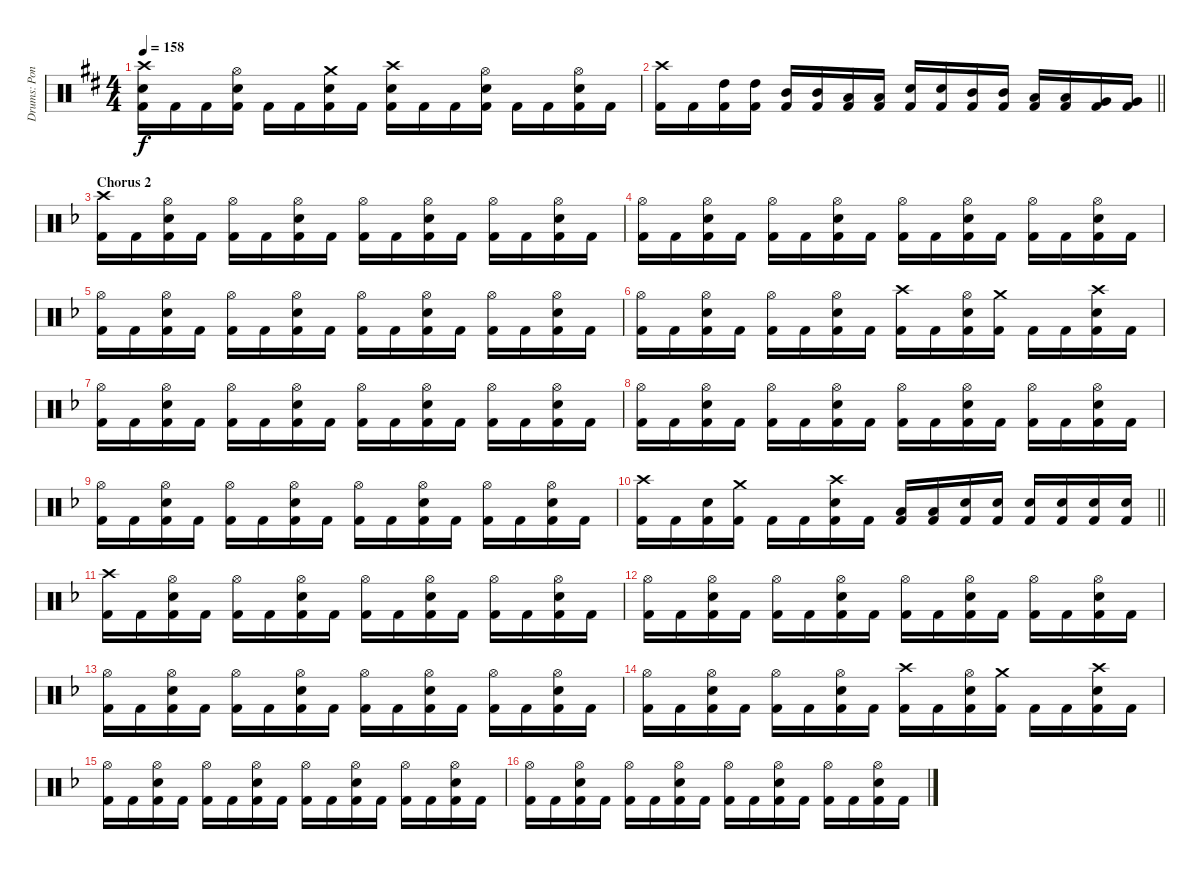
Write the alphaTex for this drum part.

\track ("Drums: Pontus Jansson" "Drums: Pon") {instrument percussion}
\staff {score}
\articulation defaults
\ts (4 4)
\tempo 158
\clef neutral
\ks bminor
("Crash high (hit)" "Electric Snare (hit)" "Kick (hit) 2").16{dy f} "Kick (hit) 2".16 "Kick (hit) 2".16 ("Hi-Hat (open)" "Electric Snare (hit)" "Kick (hit) 2").16 "Kick (hit) 2".16 "Kick (hit) 2".16 ("Crash medium (hit)" "Electric Snare (hit)" "Kick (hit) 2").16 "Kick (hit) 2".16 ("Crash high (hit)" "Electric Snare (hit)" "Kick (hit) 2").16 "Kick (hit) 2".16 "Kick (hit) 2".16 ("Hi-Hat (open)" "Electric Snare (hit)" "Kick (hit) 2").16 "Kick (hit) 2".16 "Kick (hit) 2".16 ("Hi-Hat (open)" "Electric Snare (hit)" "Kick (hit) 2").16 "Kick (hit) 2".16 |
\barLineRight lightlight
("Crash high (hit)" "Kick (hit) 2").16 "Kick (hit) 2".16 ("High Tom (hit)" "Kick (hit) 2").16 ("High Tom (hit)" "Kick (hit) 2").16 ("Mid Tom (hit)" "Kick (hit) 2").16 ("Mid Tom (hit)" "Kick (hit) 2").16 ("Low Tom (hit)" "Kick (hit) 2").16 ("Low Tom (hit)" "Kick (hit) 2").16 ("Electric Snare (hit)" "Kick (hit) 2").16 ("Electric Snare (hit)" "Kick (hit) 2").16 ("Mid Tom (hit)" "Kick (hit) 2").16 ("Mid Tom (hit)" "Kick (hit) 2").16 ("Low Tom (hit)" "Kick (hit) 2").16 ("Low Tom (hit)" "Kick (hit) 2").16 ("Very Low Tom (hit)" "Kick (hit) 2").16 ("Very Low Tom (hit)" "Kick (hit) 2").16 |
\section ("" "Chorus 2")
\ks dminor
("Crash high (hit)" "Kick (hit) 2").16 "Kick (hit) 2".16 ("Hi-Hat (open)" "Electric Snare (hit)" "Kick (hit) 2").16 "Kick (hit) 2".16 ("Hi-Hat (open)" "Kick (hit) 2").16 "Kick (hit) 2".16 ("Hi-Hat (open)" "Electric Snare (hit)" "Kick (hit) 2").16 "Kick (hit) 2".16 ("Hi-Hat (open)" "Kick (hit) 2").16 "Kick (hit) 2".16 ("Hi-Hat (open)" "Electric Snare (hit)" "Kick (hit) 2").16 "Kick (hit) 2".16 ("Hi-Hat (open)" "Kick (hit) 2").16 "Kick (hit) 2".16 ("Hi-Hat (open)" "Electric Snare (hit)" "Kick (hit) 2").16 "Kick (hit) 2".16 |
("Hi-Hat (open)" "Kick (hit) 2").16 "Kick (hit) 2".16 ("Hi-Hat (open)" "Electric Snare (hit)" "Kick (hit) 2").16 "Kick (hit) 2".16 ("Hi-Hat (open)" "Kick (hit) 2").16 "Kick (hit) 2".16 ("Hi-Hat (open)" "Electric Snare (hit)" "Kick (hit) 2").16 "Kick (hit) 2".16 ("Hi-Hat (open)" "Kick (hit) 2").16 "Kick (hit) 2".16 ("Hi-Hat (open)" "Electric Snare (hit)" "Kick (hit) 2").16 "Kick (hit) 2".16 ("Hi-Hat (open)" "Kick (hit) 2").16 "Kick (hit) 2".16 ("Hi-Hat (open)" "Electric Snare (hit)" "Kick (hit) 2").16 "Kick (hit) 2".16 |
("Hi-Hat (open)" "Kick (hit) 2").16 "Kick (hit) 2".16 ("Hi-Hat (open)" "Electric Snare (hit)" "Kick (hit) 2").16 "Kick (hit) 2".16 ("Hi-Hat (open)" "Kick (hit) 2").16 "Kick (hit) 2".16 ("Hi-Hat (open)" "Electric Snare (hit)" "Kick (hit) 2").16 "Kick (hit) 2".16 ("Hi-Hat (open)" "Kick (hit) 2").16 "Kick (hit) 2".16 ("Hi-Hat (open)" "Electric Snare (hit)" "Kick (hit) 2").16 "Kick (hit) 2".16 ("Hi-Hat (open)" "Kick (hit) 2").16 "Kick (hit) 2".16 ("Hi-Hat (open)" "Electric Snare (hit)" "Kick (hit) 2").16 "Kick (hit) 2".16 |
("Hi-Hat (open)" "Kick (hit) 2").16 "Kick (hit) 2".16 ("Hi-Hat (open)" "Electric Snare (hit)" "Kick (hit) 2").16 "Kick (hit) 2".16 ("Hi-Hat (open)" "Kick (hit) 2").16 "Kick (hit) 2".16 ("Hi-Hat (open)" "Electric Snare (hit)" "Kick (hit) 2").16 "Kick (hit) 2".16 ("Crash high (hit)" "Kick (hit) 2").16 "Kick (hit) 2".16 ("Hi-Hat (open)" "Electric Snare (hit)" "Kick (hit) 2").16 ("Crash medium (hit)" "Kick (hit) 2").16 "Kick (hit) 2".16 "Kick (hit) 2".16 ("Crash high (hit)" "Electric Snare (hit)" "Kick (hit) 2").16 "Kick (hit) 2".16 |
("Hi-Hat (open)" "Kick (hit) 2").16 "Kick (hit) 2".16 ("Hi-Hat (open)" "Electric Snare (hit)" "Kick (hit) 2").16 "Kick (hit) 2".16 ("Hi-Hat (open)" "Kick (hit) 2").16 "Kick (hit) 2".16 ("Hi-Hat (open)" "Electric Snare (hit)" "Kick (hit) 2").16 "Kick (hit) 2".16 ("Hi-Hat (open)" "Kick (hit) 2").16 "Kick (hit) 2".16 ("Hi-Hat (open)" "Electric Snare (hit)" "Kick (hit) 2").16 "Kick (hit) 2".16 ("Hi-Hat (open)" "Kick (hit) 2").16 "Kick (hit) 2".16 ("Hi-Hat (open)" "Electric Snare (hit)" "Kick (hit) 2").16 "Kick (hit) 2".16 |
("Hi-Hat (open)" "Kick (hit) 2").16 "Kick (hit) 2".16 ("Hi-Hat (open)" "Electric Snare (hit)" "Kick (hit) 2").16 "Kick (hit) 2".16 ("Hi-Hat (open)" "Kick (hit) 2").16 "Kick (hit) 2".16 ("Hi-Hat (open)" "Electric Snare (hit)" "Kick (hit) 2").16 "Kick (hit) 2".16 ("Hi-Hat (open)" "Kick (hit) 2").16 "Kick (hit) 2".16 ("Hi-Hat (open)" "Electric Snare (hit)" "Kick (hit) 2").16 "Kick (hit) 2".16 ("Hi-Hat (open)" "Kick (hit) 2").16 "Kick (hit) 2".16 ("Hi-Hat (open)" "Electric Snare (hit)" "Kick (hit) 2").16 "Kick (hit) 2".16 |
("Hi-Hat (open)" "Kick (hit) 2").16 "Kick (hit) 2".16 ("Hi-Hat (open)" "Electric Snare (hit)" "Kick (hit) 2").16 "Kick (hit) 2".16 ("Hi-Hat (open)" "Kick (hit) 2").16 "Kick (hit) 2".16 ("Hi-Hat (open)" "Electric Snare (hit)" "Kick (hit) 2").16 "Kick (hit) 2".16 ("Hi-Hat (open)" "Kick (hit) 2").16 "Kick (hit) 2".16 ("Hi-Hat (open)" "Electric Snare (hit)" "Kick (hit) 2").16 "Kick (hit) 2".16 ("Hi-Hat (open)" "Kick (hit) 2").16 "Kick (hit) 2".16 ("Hi-Hat (open)" "Electric Snare (hit)" "Kick (hit) 2").16 "Kick (hit) 2".16 |
\barLineRight lightlight
("Crash high (hit)" "Kick (hit) 2").16 "Kick (hit) 2".16 ("Electric Snare (hit)" "Kick (hit) 2").16 ("Crash medium (hit)" "Kick (hit) 2").16 "Kick (hit) 2".16 "Kick (hit) 2".16 ("Crash high (hit)" "Electric Snare (hit)" "Kick (hit) 2").16 "Kick (hit) 2".16 ("Low Tom (hit)" "Kick (hit) 2").16 ("Low Tom (hit)" "Kick (hit) 2").16 ("Electric Snare (hit)" "Kick (hit) 2").16 ("Electric Snare (hit)" "Kick (hit) 2").16 ("Electric Snare (hit)" "Kick (hit) 2").16 ("Electric Snare (hit)" "Kick (hit) 2").16 ("Electric Snare (hit)" "Kick (hit) 2").16 ("Electric Snare (hit)" "Kick (hit) 2").16 |
("Crash high (hit)" "Kick (hit) 2").16 "Kick (hit) 2".16 ("Hi-Hat (open)" "Electric Snare (hit)" "Kick (hit) 2").16 "Kick (hit) 2".16 ("Hi-Hat (open)" "Kick (hit) 2").16 "Kick (hit) 2".16 ("Hi-Hat (open)" "Electric Snare (hit)" "Kick (hit) 2").16 "Kick (hit) 2".16 ("Hi-Hat (open)" "Kick (hit) 2").16 "Kick (hit) 2".16 ("Hi-Hat (open)" "Electric Snare (hit)" "Kick (hit) 2").16 "Kick (hit) 2".16 ("Hi-Hat (open)" "Kick (hit) 2").16 "Kick (hit) 2".16 ("Hi-Hat (open)" "Electric Snare (hit)" "Kick (hit) 2").16 "Kick (hit) 2".16 |
("Hi-Hat (open)" "Kick (hit) 2").16 "Kick (hit) 2".16 ("Hi-Hat (open)" "Electric Snare (hit)" "Kick (hit) 2").16 "Kick (hit) 2".16 ("Hi-Hat (open)" "Kick (hit) 2").16 "Kick (hit) 2".16 ("Hi-Hat (open)" "Electric Snare (hit)" "Kick (hit) 2").16 "Kick (hit) 2".16 ("Hi-Hat (open)" "Kick (hit) 2").16 "Kick (hit) 2".16 ("Hi-Hat (open)" "Electric Snare (hit)" "Kick (hit) 2").16 "Kick (hit) 2".16 ("Hi-Hat (open)" "Kick (hit) 2").16 "Kick (hit) 2".16 ("Hi-Hat (open)" "Electric Snare (hit)" "Kick (hit) 2").16 "Kick (hit) 2".16 |
("Hi-Hat (open)" "Kick (hit) 2").16 "Kick (hit) 2".16 ("Hi-Hat (open)" "Electric Snare (hit)" "Kick (hit) 2").16 "Kick (hit) 2".16 ("Hi-Hat (open)" "Kick (hit) 2").16 "Kick (hit) 2".16 ("Hi-Hat (open)" "Electric Snare (hit)" "Kick (hit) 2").16 "Kick (hit) 2".16 ("Hi-Hat (open)" "Kick (hit) 2").16 "Kick (hit) 2".16 ("Hi-Hat (open)" "Electric Snare (hit)" "Kick (hit) 2").16 "Kick (hit) 2".16 ("Hi-Hat (open)" "Kick (hit) 2").16 "Kick (hit) 2".16 ("Hi-Hat (open)" "Electric Snare (hit)" "Kick (hit) 2").16 "Kick (hit) 2".16 |
("Hi-Hat (open)" "Kick (hit) 2").16 "Kick (hit) 2".16 ("Hi-Hat (open)" "Electric Snare (hit)" "Kick (hit) 2").16 "Kick (hit) 2".16 ("Hi-Hat (open)" "Kick (hit) 2").16 "Kick (hit) 2".16 ("Hi-Hat (open)" "Electric Snare (hit)" "Kick (hit) 2").16 "Kick (hit) 2".16 ("Crash high (hit)" "Kick (hit) 2").16 "Kick (hit) 2".16 ("Hi-Hat (open)" "Electric Snare (hit)" "Kick (hit) 2").16 ("Crash medium (hit)" "Kick (hit) 2").16 "Kick (hit) 2".16 "Kick (hit) 2".16 ("Crash high (hit)" "Electric Snare (hit)" "Kick (hit) 2").16 "Kick (hit) 2".16 |
("Hi-Hat (open)" "Kick (hit) 2").16 "Kick (hit) 2".16 ("Hi-Hat (open)" "Electric Snare (hit)" "Kick (hit) 2").16 "Kick (hit) 2".16 ("Hi-Hat (open)" "Kick (hit) 2").16 "Kick (hit) 2".16 ("Hi-Hat (open)" "Electric Snare (hit)" "Kick (hit) 2").16 "Kick (hit) 2".16 ("Hi-Hat (open)" "Kick (hit) 2").16 "Kick (hit) 2".16 ("Hi-Hat (open)" "Electric Snare (hit)" "Kick (hit) 2").16 "Kick (hit) 2".16 ("Hi-Hat (open)" "Kick (hit) 2").16 "Kick (hit) 2".16 ("Hi-Hat (open)" "Electric Snare (hit)" "Kick (hit) 2").16 "Kick (hit) 2".16 |
("Hi-Hat (open)" "Kick (hit) 2").16 "Kick (hit) 2".16 ("Hi-Hat (open)" "Electric Snare (hit)" "Kick (hit) 2").16 "Kick (hit) 2".16 ("Hi-Hat (open)" "Kick (hit) 2").16 "Kick (hit) 2".16 ("Hi-Hat (open)" "Electric Snare (hit)" "Kick (hit) 2").16 "Kick (hit) 2".16 ("Hi-Hat (open)" "Kick (hit) 2").16 "Kick (hit) 2".16 ("Hi-Hat (open)" "Electric Snare (hit)" "Kick (hit) 2").16 "Kick (hit) 2".16 ("Hi-Hat (open)" "Kick (hit) 2").16 "Kick (hit) 2".16 ("Hi-Hat (open)" "Electric Snare (hit)" "Kick (hit) 2").16 "Kick (hit) 2".16
